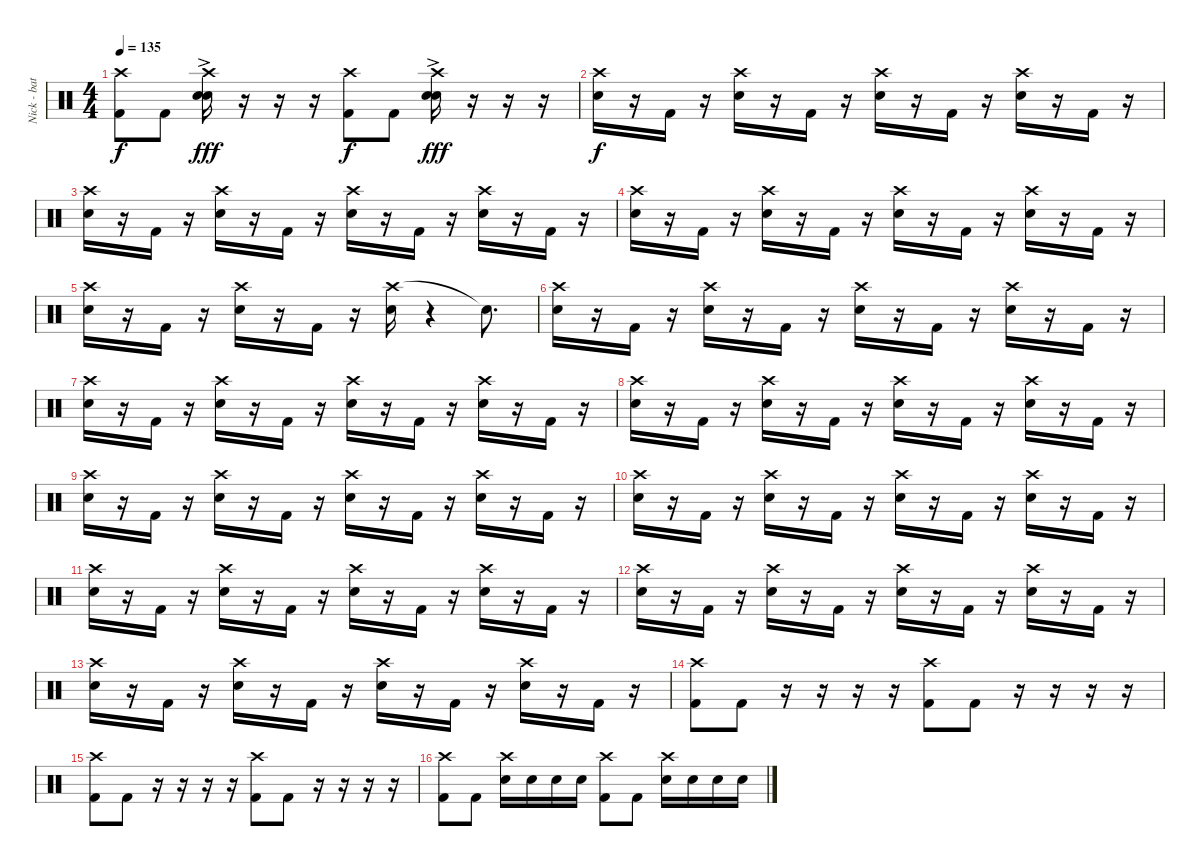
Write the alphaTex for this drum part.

\track ("Nick - batterie" "Nick - bat") {instrument percussion}
\staff {score}
\articulation defaults
\ts (4 4)
\tempo 135
\clef neutral
\ks c
("Crash high (hit)" "Kick (hit) 2").8{dy f} "Kick (hit) 2".8 ("Crash high (hit)" "Electric Snare (hit)"{ac} "Electric Snare (hit)").16{dy fff} r.16 r.16 r.16 ("Crash high (hit)" "Kick (hit) 2").8{dy f} "Kick (hit) 2".8 ("Crash high (hit)" "Electric Snare (hit)"{ac} "Electric Snare (hit)").16{dy fff} r.16 r.16 r.16 |
("Crash high (hit)" "Electric Snare (hit)").16{dy f} r.16 "Kick (hit) 2".16 r.16 ("Crash high (hit)" "Electric Snare (hit)").16 r.16 "Kick (hit) 2".16 r.16 ("Crash high (hit)" "Electric Snare (hit)").16 r.16 "Kick (hit) 2".16 r.16 ("Crash high (hit)" "Electric Snare (hit)").16 r.16 "Kick (hit) 2".16 r.16 |
("Crash high (hit)" "Electric Snare (hit)").16 r.16 "Kick (hit) 2".16 r.16 ("Crash high (hit)" "Electric Snare (hit)").16 r.16 "Kick (hit) 2".16 r.16 ("Crash high (hit)" "Electric Snare (hit)").16 r.16 "Kick (hit) 2".16 r.16 ("Crash high (hit)" "Electric Snare (hit)").16 r.16 "Kick (hit) 2".16 r.16 |
("Crash high (hit)" "Electric Snare (hit)").16 r.16 "Kick (hit) 2".16 r.16 ("Crash high (hit)" "Electric Snare (hit)").16 r.16 "Kick (hit) 2".16 r.16 ("Crash high (hit)" "Electric Snare (hit)").16 r.16 "Kick (hit) 2".16 r.16 ("Crash high (hit)" "Electric Snare (hit)").16 r.16 "Kick (hit) 2".16 r.16 |
("Crash high (hit)" "Electric Snare (hit)").16 r.16 "Kick (hit) 2".16 r.16 ("Crash high (hit)" "Electric Snare (hit)").16 r.16 "Kick (hit) 2".16 r.16 ("Crash high (hit)" "Electric Snare (hit)").16 r.4 "Snare (hit)"{t}.8{d} |
("Crash high (hit)" "Electric Snare (hit)").16 r.16 "Kick (hit) 2".16 r.16 ("Crash high (hit)" "Electric Snare (hit)").16 r.16 "Kick (hit) 2".16 r.16 ("Crash high (hit)" "Electric Snare (hit)").16 r.16 "Kick (hit) 2".16 r.16 ("Crash high (hit)" "Electric Snare (hit)").16 r.16 "Kick (hit) 2".16 r.16 |
("Crash high (hit)" "Electric Snare (hit)").16 r.16 "Kick (hit) 2".16 r.16 ("Crash high (hit)" "Electric Snare (hit)").16 r.16 "Kick (hit) 2".16 r.16 ("Crash high (hit)" "Electric Snare (hit)").16 r.16 "Kick (hit) 2".16 r.16 ("Crash high (hit)" "Electric Snare (hit)").16 r.16 "Kick (hit) 2".16 r.16 |
("Crash high (hit)" "Electric Snare (hit)").16 r.16 "Kick (hit) 2".16 r.16 ("Crash high (hit)" "Electric Snare (hit)").16 r.16 "Kick (hit) 2".16 r.16 ("Crash high (hit)" "Electric Snare (hit)").16 r.16 "Kick (hit) 2".16 r.16 ("Crash high (hit)" "Electric Snare (hit)").16 r.16 "Kick (hit) 2".16 r.16 |
("Crash high (hit)" "Electric Snare (hit)").16 r.16 "Kick (hit) 2".16 r.16 ("Crash high (hit)" "Electric Snare (hit)").16 r.16 "Kick (hit) 2".16 r.16 ("Crash high (hit)" "Electric Snare (hit)").16 r.16 "Kick (hit) 2".16 r.16 ("Crash high (hit)" "Electric Snare (hit)").16 r.16 "Kick (hit) 2".16 r.16 |
("Crash high (hit)" "Electric Snare (hit)").16 r.16 "Kick (hit) 2".16 r.16 ("Crash high (hit)" "Electric Snare (hit)").16 r.16 "Kick (hit) 2".16 r.16 ("Crash high (hit)" "Electric Snare (hit)").16 r.16 "Kick (hit) 2".16 r.16 ("Crash high (hit)" "Electric Snare (hit)").16 r.16 "Kick (hit) 2".16 r.16 |
("Crash high (hit)" "Electric Snare (hit)").16 r.16 "Kick (hit) 2".16 r.16 ("Crash high (hit)" "Electric Snare (hit)").16 r.16 "Kick (hit) 2".16 r.16 ("Crash high (hit)" "Electric Snare (hit)").16 r.16 "Kick (hit) 2".16 r.16 ("Crash high (hit)" "Electric Snare (hit)").16 r.16 "Kick (hit) 2".16 r.16 |
("Crash high (hit)" "Electric Snare (hit)").16 r.16 "Kick (hit) 2".16 r.16 ("Crash high (hit)" "Electric Snare (hit)").16 r.16 "Kick (hit) 2".16 r.16 ("Crash high (hit)" "Electric Snare (hit)").16 r.16 "Kick (hit) 2".16 r.16 ("Crash high (hit)" "Electric Snare (hit)").16 r.16 "Kick (hit) 2".16 r.16 |
("Crash high (hit)" "Electric Snare (hit)").16 r.16 "Kick (hit) 2".16 r.16 ("Crash high (hit)" "Electric Snare (hit)").16 r.16 "Kick (hit) 2".16 r.16 ("Crash high (hit)" "Electric Snare (hit)").16 r.16 "Kick (hit) 2".16 r.16 ("Crash high (hit)" "Electric Snare (hit)").16 r.16 "Kick (hit) 2".16 r.16 |
("Crash high (hit)" "Kick (hit) 2").8 "Kick (hit) 2".8 r.16 r.16 r.16 r.16 ("Crash high (hit)" "Kick (hit) 2").8 "Kick (hit) 2".8 r.16 r.16 r.16 r.16 |
("Crash high (hit)" "Kick (hit) 2").8 "Kick (hit) 2".8 r.16 r.16 r.16 r.16 ("Crash high (hit)" "Kick (hit) 2").8 "Kick (hit) 2".8 r.16 r.16 r.16 r.16 |
("Crash high (hit)" "Kick (hit) 2").8 "Kick (hit) 2".8 ("Crash high (hit)" "Electric Snare (hit)").16 "Electric Snare (hit)".16 "Electric Snare (hit)".16 "Electric Snare (hit)".16 ("Crash high (hit)" "Kick (hit) 2").8 "Kick (hit) 2".8 ("Crash high (hit)" "Electric Snare (hit)").16 "Electric Snare (hit)".16 "Electric Snare (hit)".16 "Electric Snare (hit)".16
